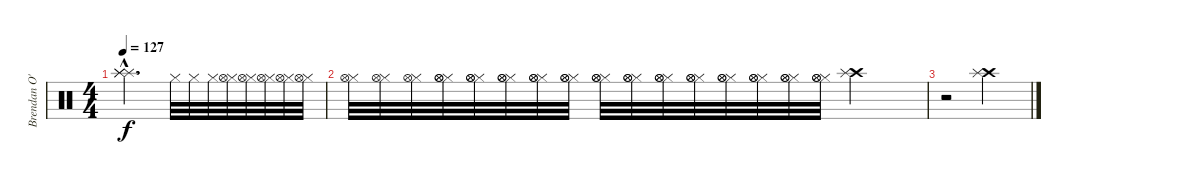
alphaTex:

\track ("Brendan O'Neil" "Brendan O'") {instrument percussion}
\staff {score}
\articulation defaults
\ts (4 4)
\tempo 127
\clef neutral
\ks c
("Splash (hit)"{hac} "Splash (hit)"{hac} "Splash (hit)"{hac}).2{d dy f} "Hi-Hat (closed)".32 "Hi-Hat (closed)".32 "Hi-Hat (closed)".32 ("Hi-Hat (closed)" "Hi-Hat (open)").32 ("Hi-Hat (closed)" "Hi-Hat (open)").32 ("Hi-Hat (closed)" "Hi-Hat (open)").32 ("Hi-Hat (closed)" "Hi-Hat (open)").32 ("Hi-Hat (closed)" "Hi-Hat (open)").32 |
("Hi-Hat (closed)" "Hi-Hat (open)").32 ("Hi-Hat (closed)" "Hi-Hat (open)").32 ("Hi-Hat (closed)" "Hi-Hat (open)").32 ("Hi-Hat (closed)" "Hi-Hat (open)" "Hi-Hat (open)").32 ("Hi-Hat (closed)" "Hi-Hat (open)" "Hi-Hat (open)").32 ("Hi-Hat (closed)" "Hi-Hat (open)" "Hi-Hat (open)").32 ("Hi-Hat (closed)" "Hi-Hat (open)" "Hi-Hat (open)").32 ("Hi-Hat (closed)" "Hi-Hat (open)" "Hi-Hat (open)").32 ("Hi-Hat (closed)" "Hi-Hat (open)" "Hi-Hat (open)").32 ("Hi-Hat (closed)" "Hi-Hat (open)" "Hi-Hat (open)").32 ("Hi-Hat (closed)" "Hi-Hat (open)" "Hi-Hat (open)").32 ("Hi-Hat (closed)" "Hi-Hat (open)" "Hi-Hat (open)").32 ("Hi-Hat (closed)" "Hi-Hat (open)" "Hi-Hat (open)").32 ("Hi-Hat (closed)" "Hi-Hat (open)" "Hi-Hat (open)").32 ("Hi-Hat (closed)" "Hi-Hat (open)" "Hi-Hat (open)").32 ("Hi-Hat (closed)" "Hi-Hat (open)" "Hi-Hat (open)").32 ("Crash high (hit)" "Splash (hit)").2 |
r.2 ("Crash high (hit)" "Splash (hit)").2
